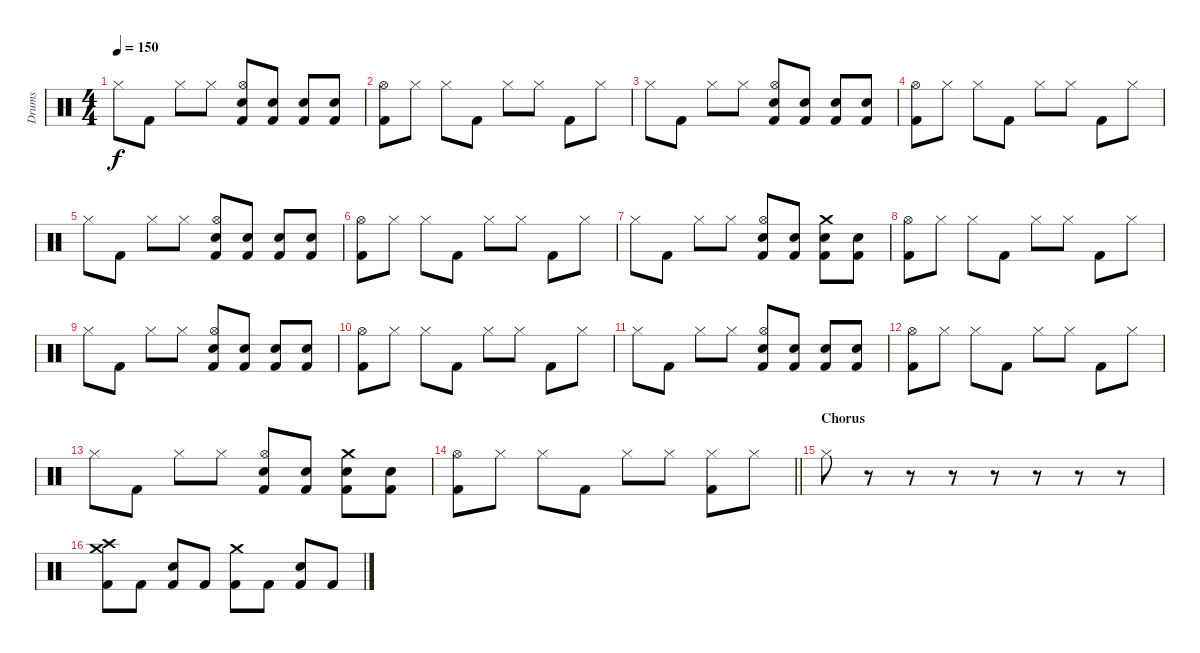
\track ("Drums" "Drums") {instrument percussion}
\staff {score}
\articulation defaults
\ts (4 4)
\tempo 150
\clef neutral
\ks c "Hi-Hat (closed)".8{dy f} "Kick (hit) 2".8 "Hi-Hat (closed)".8 "Hi-Hat (closed)".8
("Hi-Hat (open)" "Electric Snare (hit)" "Kick (hit) 2").8 ("Electric Snare (hit)" "Kick (hit) 2").8 ("Electric Snare (hit)" "Kick (hit) 2").8 ("Electric Snare (hit)" "Kick (hit) 2").8 |
("Hi-Hat (open)" "Kick (hit) 2").8 "Hi-Hat (closed)".8 "Hi-Hat (closed)".8 "Kick (hit) 2".8 "Hi-Hat (closed)".8 "Hi-Hat (closed)".8 "Kick (hit) 2".8 "Hi-Hat (closed)".8 |
"Hi-Hat (closed)".8 "Kick (hit) 2".8 "Hi-Hat (closed)".8 "Hi-Hat (closed)".8 ("Hi-Hat (open)" "Electric Snare (hit)" "Kick (hit) 2").8 ("Electric Snare (hit)" "Kick (hit) 2").8 ("Electric Snare (hit)" "Kick (hit) 2").8 ("Electric Snare (hit)" "Kick (hit) 2").8 |
("Hi-Hat (open)" "Kick (hit) 2").8 "Hi-Hat (closed)".8 "Hi-Hat (closed)".8 "Kick (hit) 2".8 "Hi-Hat (closed)".8 "Hi-Hat (closed)".8 "Kick (hit) 2".8 "Hi-Hat (closed)".8 |
"Hi-Hat (closed)".8 "Kick (hit) 2".8 "Hi-Hat (closed)".8 "Hi-Hat (closed)".8 ("Hi-Hat (open)" "Electric Snare (hit)" "Kick (hit) 2").8 ("Electric Snare (hit)" "Kick (hit) 2").8 ("Electric Snare (hit)" "Kick (hit) 2").8 ("Electric Snare (hit)" "Kick (hit) 2").8 |
("Hi-Hat (open)" "Kick (hit) 2").8 "Hi-Hat (closed)".8 "Hi-Hat (closed)".8 "Kick (hit) 2".8 "Hi-Hat (closed)".8 "Hi-Hat (closed)".8 "Kick (hit) 2".8 "Hi-Hat (closed)".8 |
"Hi-Hat (closed)".8 "Kick (hit) 2".8 "Hi-Hat (closed)".8 "Hi-Hat (closed)".8 ("Hi-Hat (open)" "Electric Snare (hit)" "Kick (hit) 2").8 ("Electric Snare (hit)" "Kick (hit) 2").8 ("Crash medium (hit)" "Electric Snare (hit)" "Kick (hit) 2").8 ("Electric Snare (hit)" "Kick (hit) 2").8 |
("Hi-Hat (open)" "Kick (hit) 2").8 "Hi-Hat (closed)".8 "Hi-Hat (closed)".8 "Kick (hit) 2".8 "Hi-Hat (closed)".8 "Hi-Hat (closed)".8 "Kick (hit) 2".8 "Hi-Hat (closed)".8 |
"Hi-Hat (closed)".8 "Kick (hit) 2".8 "Hi-Hat (closed)".8 "Hi-Hat (closed)".8 ("Hi-Hat (open)" "Electric Snare (hit)" "Kick (hit) 2").8 ("Electric Snare (hit)" "Kick (hit) 2").8 ("Electric Snare (hit)" "Kick (hit) 2").8 ("Electric Snare (hit)" "Kick (hit) 2").8 |
("Hi-Hat (open)" "Kick (hit) 2").8 "Hi-Hat (closed)".8 "Hi-Hat (closed)".8 "Kick (hit) 2".8 "Hi-Hat (closed)".8 "Hi-Hat (closed)".8 "Kick (hit) 2".8 "Hi-Hat (closed)".8 |
"Hi-Hat (closed)".8 "Kick (hit) 2".8 "Hi-Hat (closed)".8 "Hi-Hat (closed)".8 ("Hi-Hat (open)" "Electric Snare (hit)" "Kick (hit) 2").8 ("Electric Snare (hit)" "Kick (hit) 2").8 ("Electric Snare (hit)" "Kick (hit) 2").8 ("Electric Snare (hit)" "Kick (hit) 2").8 |
("Hi-Hat (open)" "Kick (hit) 2").8 "Hi-Hat (closed)".8 "Hi-Hat (closed)".8 "Kick (hit) 2".8 "Hi-Hat (closed)".8 "Hi-Hat (closed)".8 "Kick (hit) 2".8 "Hi-Hat (closed)".8 |
"Hi-Hat (closed)".8 "Kick (hit) 2".8 "Hi-Hat (closed)".8 "Hi-Hat (closed)".8 ("Hi-Hat (open)" "Electric Snare (hit)" "Kick (hit) 2").8 ("Electric Snare (hit)" "Kick (hit) 2").8 ("Crash medium (hit)" "Electric Snare (hit)" "Kick (hit) 2").8 ("Electric Snare (hit)" "Kick (hit) 2").8 |
\barLineRight lightlight
("Hi-Hat (open)" "Kick (hit) 2").8 "Hi-Hat (closed)".8 "Hi-Hat (closed)".8 "Kick (hit) 2".8 "Hi-Hat (closed)".8 "Hi-Hat (closed)".8 ("Hi-Hat (closed)" "Kick (hit) 2").8 "Hi-Hat (closed)".8 |
\section ("" "Chorus")
"Hi-Hat (closed)".8 r.8 r.8 r.8 r.8 r.8 r.8 r.8 |
("Crash medium (hit)" "Crash high (hit)" "Kick (hit) 2").8 "Kick (hit) 2".8 ("Electric Snare (hit)" "Kick (hit) 2").8 "Kick (hit) 2".8 ("Crash medium (hit)" "Kick (hit) 2").8 "Kick (hit) 2".8 ("Electric Snare (hit)" "Kick (hit) 2").8 "Kick (hit) 2".8
